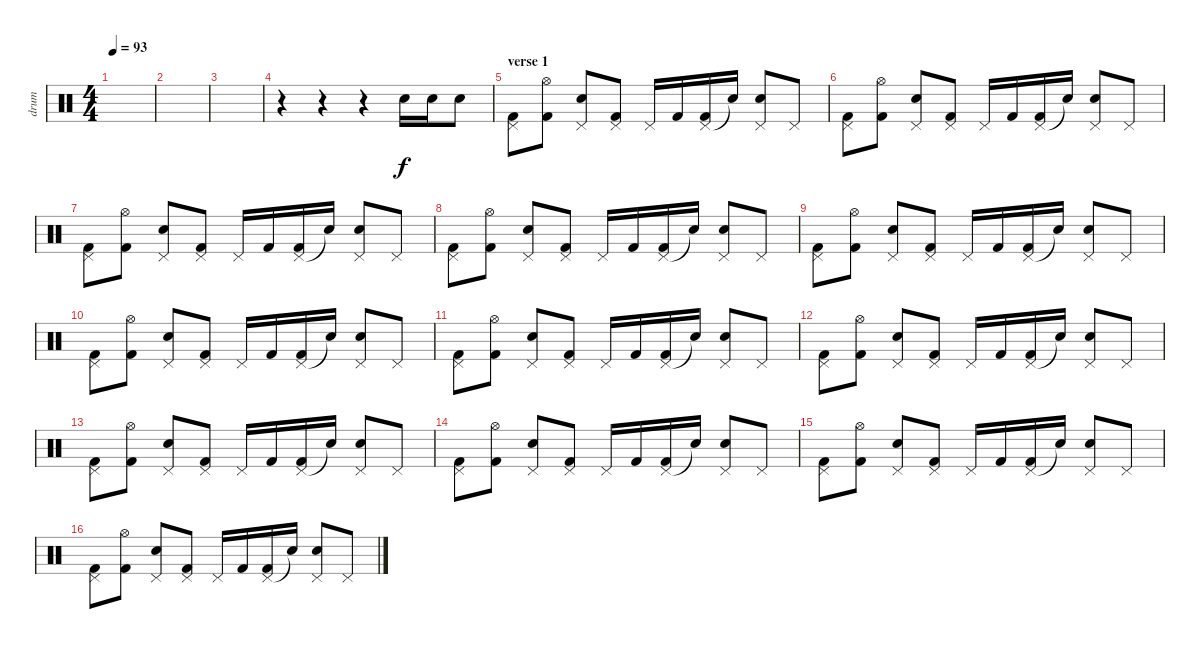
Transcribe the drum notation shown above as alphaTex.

\track ("drum" "drum") {instrument percussion}
\staff {score}
\articulation defaults
\ts (4 4)
\tempo 93
\clef neutral
\ks c
|
|
|
r.4 r.4 r.4 "Snare (hit) 2".16 "Snare (hit) 2".16 "Snare (hit) 2".8 |
\section ("" "verse 1")
("Pedal Hi-Hat (hit)" "Kick (hit) 2").8 ("Hi-Hat (open)" "Kick (hit) 2").8 ("Pedal Hi-Hat (hit)" "Snare (hit) 2").8 ("Pedal Hi-Hat (hit)" "Kick (hit) 2").8 "Pedal Hi-Hat (hit)".16 "Kick (hit) 2".16 ("Pedal Hi-Hat (hit)" "Kick (hit) 2").16 "Snare (hit)"{t}.16 ("Pedal Hi-Hat (hit)" "Snare (hit) 2").8 "Pedal Hi-Hat (hit)".8 |
("Pedal Hi-Hat (hit)" "Kick (hit) 2").8 ("Hi-Hat (open)" "Kick (hit) 2").8 ("Pedal Hi-Hat (hit)" "Snare (hit) 2").8 ("Pedal Hi-Hat (hit)" "Kick (hit) 2").8 "Pedal Hi-Hat (hit)".16 "Kick (hit) 2".16 ("Pedal Hi-Hat (hit)" "Kick (hit) 2").16 "Snare (hit)"{t}.16 ("Pedal Hi-Hat (hit)" "Snare (hit) 2").8 "Pedal Hi-Hat (hit)".8 |
("Pedal Hi-Hat (hit)" "Kick (hit) 2").8 ("Hi-Hat (open)" "Kick (hit) 2").8 ("Pedal Hi-Hat (hit)" "Snare (hit) 2").8 ("Pedal Hi-Hat (hit)" "Kick (hit) 2").8 "Pedal Hi-Hat (hit)".16 "Kick (hit) 2".16 ("Pedal Hi-Hat (hit)" "Kick (hit) 2").16 "Snare (hit)"{t}.16 ("Pedal Hi-Hat (hit)" "Snare (hit) 2").8 "Pedal Hi-Hat (hit)".8 |
("Pedal Hi-Hat (hit)" "Kick (hit) 2").8 ("Hi-Hat (open)" "Kick (hit) 2").8 ("Pedal Hi-Hat (hit)" "Snare (hit) 2").8 ("Pedal Hi-Hat (hit)" "Kick (hit) 2").8 "Pedal Hi-Hat (hit)".16 "Kick (hit) 2".16 ("Pedal Hi-Hat (hit)" "Kick (hit) 2").16 "Snare (hit)"{t}.16 ("Pedal Hi-Hat (hit)" "Snare (hit) 2").8 "Pedal Hi-Hat (hit)".8 |
("Pedal Hi-Hat (hit)" "Kick (hit) 2").8 ("Hi-Hat (open)" "Kick (hit) 2").8 ("Pedal Hi-Hat (hit)" "Snare (hit) 2").8 ("Pedal Hi-Hat (hit)" "Kick (hit) 2").8 "Pedal Hi-Hat (hit)".16 "Kick (hit) 2".16 ("Pedal Hi-Hat (hit)" "Kick (hit) 2").16 "Snare (hit)"{t}.16 ("Pedal Hi-Hat (hit)" "Snare (hit) 2").8 "Pedal Hi-Hat (hit)".8 |
("Pedal Hi-Hat (hit)" "Kick (hit) 2").8 ("Hi-Hat (open)" "Kick (hit) 2").8 ("Pedal Hi-Hat (hit)" "Snare (hit) 2").8 ("Pedal Hi-Hat (hit)" "Kick (hit) 2").8 "Pedal Hi-Hat (hit)".16 "Kick (hit) 2".16 ("Pedal Hi-Hat (hit)" "Kick (hit) 2").16 "Snare (hit)"{t}.16 ("Pedal Hi-Hat (hit)" "Snare (hit) 2").8 "Pedal Hi-Hat (hit)".8 |
("Pedal Hi-Hat (hit)" "Kick (hit) 2").8 ("Hi-Hat (open)" "Kick (hit) 2").8 ("Pedal Hi-Hat (hit)" "Snare (hit) 2").8 ("Pedal Hi-Hat (hit)" "Kick (hit) 2").8 "Pedal Hi-Hat (hit)".16 "Kick (hit) 2".16 ("Pedal Hi-Hat (hit)" "Kick (hit) 2").16 "Snare (hit)"{t}.16 ("Pedal Hi-Hat (hit)" "Snare (hit) 2").8 "Pedal Hi-Hat (hit)".8 |
("Pedal Hi-Hat (hit)" "Kick (hit) 2").8 ("Hi-Hat (open)" "Kick (hit) 2").8 ("Pedal Hi-Hat (hit)" "Snare (hit) 2").8 ("Pedal Hi-Hat (hit)" "Kick (hit) 2").8 "Pedal Hi-Hat (hit)".16 "Kick (hit) 2".16 ("Pedal Hi-Hat (hit)" "Kick (hit) 2").16 "Snare (hit)"{t}.16 ("Pedal Hi-Hat (hit)" "Snare (hit) 2").8 "Pedal Hi-Hat (hit)".8 |
("Pedal Hi-Hat (hit)" "Kick (hit) 2").8 ("Hi-Hat (open)" "Kick (hit) 2").8 ("Pedal Hi-Hat (hit)" "Snare (hit) 2").8 ("Pedal Hi-Hat (hit)" "Kick (hit) 2").8 "Pedal Hi-Hat (hit)".16 "Kick (hit) 2".16 ("Pedal Hi-Hat (hit)" "Kick (hit) 2").16 "Snare (hit)"{t}.16 ("Pedal Hi-Hat (hit)" "Snare (hit) 2").8 "Pedal Hi-Hat (hit)".8 |
("Pedal Hi-Hat (hit)" "Kick (hit) 2").8 ("Hi-Hat (open)" "Kick (hit) 2").8 ("Pedal Hi-Hat (hit)" "Snare (hit) 2").8 ("Pedal Hi-Hat (hit)" "Kick (hit) 2").8 "Pedal Hi-Hat (hit)".16 "Kick (hit) 2".16 ("Pedal Hi-Hat (hit)" "Kick (hit) 2").16 "Snare (hit)"{t}.16 ("Pedal Hi-Hat (hit)" "Snare (hit) 2").8 "Pedal Hi-Hat (hit)".8 |
("Pedal Hi-Hat (hit)" "Kick (hit) 2").8 ("Hi-Hat (open)" "Kick (hit) 2").8 ("Pedal Hi-Hat (hit)" "Snare (hit) 2").8 ("Pedal Hi-Hat (hit)" "Kick (hit) 2").8 "Pedal Hi-Hat (hit)".16 "Kick (hit) 2".16 ("Pedal Hi-Hat (hit)" "Kick (hit) 2").16 "Snare (hit)"{t}.16 ("Pedal Hi-Hat (hit)" "Snare (hit) 2").8 "Pedal Hi-Hat (hit)".8 |
("Pedal Hi-Hat (hit)" "Kick (hit) 2").8 ("Hi-Hat (open)" "Kick (hit) 2").8 ("Pedal Hi-Hat (hit)" "Snare (hit) 2").8 ("Pedal Hi-Hat (hit)" "Kick (hit) 2").8 "Pedal Hi-Hat (hit)".16 "Kick (hit) 2".16 ("Pedal Hi-Hat (hit)" "Kick (hit) 2").16 "Snare (hit)"{t}.16 ("Pedal Hi-Hat (hit)" "Snare (hit) 2").8 "Pedal Hi-Hat (hit)".8
